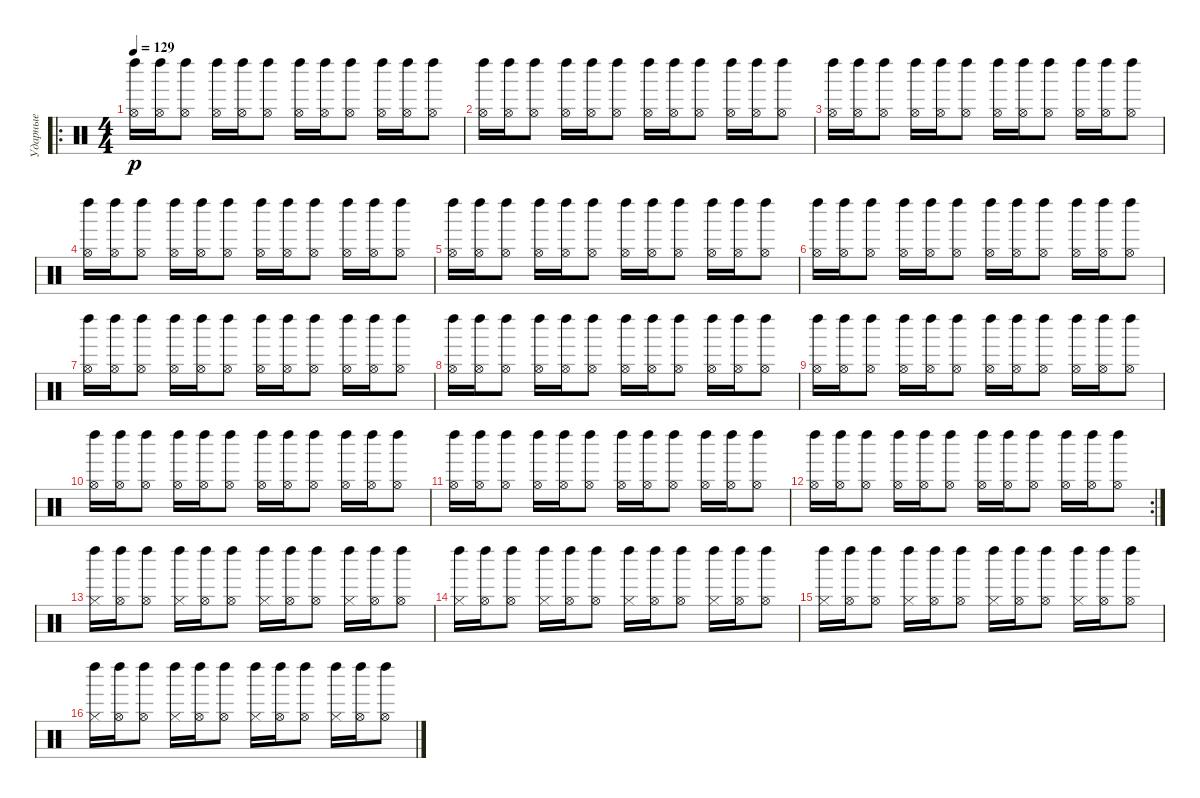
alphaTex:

\track ("Ударные" "Ударные") {instrument percussion}
\staff {score}
\articulation defaults
\ro
\ts (4 4)
\tempo 129
\clef neutral
\ks c
("Left Maraca (hit)" "Hi-Hat (open)").16{dy p} ("Left Maraca (hit)" "Hi-Hat (open)").16 ("Left Maraca (hit)" "Hi-Hat (open)").8 ("Left Maraca (hit)" "Hi-Hat (open)").16 ("Left Maraca (hit)" "Hi-Hat (open)").16 ("Left Maraca (hit)" "Hi-Hat (open)").8 ("Left Maraca (hit)" "Hi-Hat (open)").16 ("Left Maraca (hit)" "Hi-Hat (open)").16 ("Left Maraca (hit)" "Hi-Hat (open)").8 ("Left Maraca (hit)" "Hi-Hat (open)").16 ("Left Maraca (hit)" "Hi-Hat (open)").16 ("Left Maraca (hit)" "Hi-Hat (open)").8 |
("Left Maraca (hit)" "Hi-Hat (open)").16 ("Left Maraca (hit)" "Hi-Hat (open)").16 ("Left Maraca (hit)" "Hi-Hat (open)").8 ("Left Maraca (hit)" "Hi-Hat (open)").16 ("Left Maraca (hit)" "Hi-Hat (open)").16 ("Left Maraca (hit)" "Hi-Hat (open)").8 ("Left Maraca (hit)" "Hi-Hat (open)").16 ("Left Maraca (hit)" "Hi-Hat (open)").16 ("Left Maraca (hit)" "Hi-Hat (open)").8 ("Left Maraca (hit)" "Hi-Hat (open)").16 ("Left Maraca (hit)" "Hi-Hat (open)").16 ("Left Maraca (hit)" "Hi-Hat (open)").8 |
("Left Maraca (hit)" "Hi-Hat (open)").16 ("Left Maraca (hit)" "Hi-Hat (open)").16 ("Left Maraca (hit)" "Hi-Hat (open)").8 ("Left Maraca (hit)" "Hi-Hat (open)").16 ("Left Maraca (hit)" "Hi-Hat (open)").16 ("Left Maraca (hit)" "Hi-Hat (open)").8 ("Left Maraca (hit)" "Hi-Hat (open)").16 ("Left Maraca (hit)" "Hi-Hat (open)").16 ("Left Maraca (hit)" "Hi-Hat (open)").8 ("Left Maraca (hit)" "Hi-Hat (open)").16 ("Left Maraca (hit)" "Hi-Hat (open)").16 ("Left Maraca (hit)" "Hi-Hat (open)").8 |
("Left Maraca (hit)" "Hi-Hat (open)").16 ("Left Maraca (hit)" "Hi-Hat (open)").16 ("Left Maraca (hit)" "Hi-Hat (open)").8 ("Left Maraca (hit)" "Hi-Hat (open)").16 ("Left Maraca (hit)" "Hi-Hat (open)").16 ("Left Maraca (hit)" "Hi-Hat (open)").8 ("Left Maraca (hit)" "Hi-Hat (open)").16 ("Left Maraca (hit)" "Hi-Hat (open)").16 ("Left Maraca (hit)" "Hi-Hat (open)").8 ("Left Maraca (hit)" "Hi-Hat (open)").16 ("Left Maraca (hit)" "Hi-Hat (open)").16 ("Left Maraca (hit)" "Hi-Hat (open)").8 |
("Left Maraca (hit)" "Hi-Hat (open)").16 ("Left Maraca (hit)" "Hi-Hat (open)").16 ("Left Maraca (hit)" "Hi-Hat (open)").8 ("Left Maraca (hit)" "Hi-Hat (open)").16 ("Left Maraca (hit)" "Hi-Hat (open)").16 ("Left Maraca (hit)" "Hi-Hat (open)").8 ("Left Maraca (hit)" "Hi-Hat (open)").16 ("Left Maraca (hit)" "Hi-Hat (open)").16 ("Left Maraca (hit)" "Hi-Hat (open)").8 ("Left Maraca (hit)" "Hi-Hat (open)").16 ("Left Maraca (hit)" "Hi-Hat (open)").16 ("Left Maraca (hit)" "Hi-Hat (open)").8 |
("Left Maraca (hit)" "Hi-Hat (open)").16 ("Left Maraca (hit)" "Hi-Hat (open)").16 ("Left Maraca (hit)" "Hi-Hat (open)").8 ("Left Maraca (hit)" "Hi-Hat (open)").16 ("Left Maraca (hit)" "Hi-Hat (open)").16 ("Left Maraca (hit)" "Hi-Hat (open)").8 ("Left Maraca (hit)" "Hi-Hat (open)").16 ("Left Maraca (hit)" "Hi-Hat (open)").16 ("Left Maraca (hit)" "Hi-Hat (open)").8 ("Left Maraca (hit)" "Hi-Hat (open)").16 ("Left Maraca (hit)" "Hi-Hat (open)").16 ("Left Maraca (hit)" "Hi-Hat (open)").8 |
("Left Maraca (hit)" "Hi-Hat (open)").16 ("Left Maraca (hit)" "Hi-Hat (open)").16 ("Left Maraca (hit)" "Hi-Hat (open)").8 ("Left Maraca (hit)" "Hi-Hat (open)").16 ("Left Maraca (hit)" "Hi-Hat (open)").16 ("Left Maraca (hit)" "Hi-Hat (open)").8 ("Left Maraca (hit)" "Hi-Hat (open)").16 ("Left Maraca (hit)" "Hi-Hat (open)").16 ("Left Maraca (hit)" "Hi-Hat (open)").8 ("Left Maraca (hit)" "Hi-Hat (open)").16 ("Left Maraca (hit)" "Hi-Hat (open)").16 ("Left Maraca (hit)" "Hi-Hat (open)").8 |
("Left Maraca (hit)" "Hi-Hat (open)").16 ("Left Maraca (hit)" "Hi-Hat (open)").16 ("Left Maraca (hit)" "Hi-Hat (open)").8 ("Left Maraca (hit)" "Hi-Hat (open)").16 ("Left Maraca (hit)" "Hi-Hat (open)").16 ("Left Maraca (hit)" "Hi-Hat (open)").8 ("Left Maraca (hit)" "Hi-Hat (open)").16 ("Left Maraca (hit)" "Hi-Hat (open)").16 ("Left Maraca (hit)" "Hi-Hat (open)").8 ("Left Maraca (hit)" "Hi-Hat (open)").16 ("Left Maraca (hit)" "Hi-Hat (open)").16 ("Left Maraca (hit)" "Hi-Hat (open)").8 |
("Left Maraca (hit)" "Hi-Hat (open)").16 ("Left Maraca (hit)" "Hi-Hat (open)").16 ("Left Maraca (hit)" "Hi-Hat (open)").8 ("Left Maraca (hit)" "Hi-Hat (open)").16 ("Left Maraca (hit)" "Hi-Hat (open)").16 ("Left Maraca (hit)" "Hi-Hat (open)").8 ("Left Maraca (hit)" "Hi-Hat (open)").16 ("Left Maraca (hit)" "Hi-Hat (open)").16 ("Left Maraca (hit)" "Hi-Hat (open)").8 ("Left Maraca (hit)" "Hi-Hat (open)").16 ("Left Maraca (hit)" "Hi-Hat (open)").16 ("Left Maraca (hit)" "Hi-Hat (open)").8 |
("Left Maraca (hit)" "Hi-Hat (open)").16 ("Left Maraca (hit)" "Hi-Hat (open)").16 ("Left Maraca (hit)" "Hi-Hat (open)").8 ("Left Maraca (hit)" "Hi-Hat (open)").16 ("Left Maraca (hit)" "Hi-Hat (open)").16 ("Left Maraca (hit)" "Hi-Hat (open)").8 ("Left Maraca (hit)" "Hi-Hat (open)").16 ("Left Maraca (hit)" "Hi-Hat (open)").16 ("Left Maraca (hit)" "Hi-Hat (open)").8 ("Left Maraca (hit)" "Hi-Hat (open)").16 ("Left Maraca (hit)" "Hi-Hat (open)").16 ("Left Maraca (hit)" "Hi-Hat (open)").8 |
("Left Maraca (hit)" "Hi-Hat (open)").16 ("Left Maraca (hit)" "Hi-Hat (open)").16 ("Left Maraca (hit)" "Hi-Hat (open)").8 ("Left Maraca (hit)" "Hi-Hat (open)").16 ("Left Maraca (hit)" "Hi-Hat (open)").16 ("Left Maraca (hit)" "Hi-Hat (open)").8 ("Left Maraca (hit)" "Hi-Hat (open)").16 ("Left Maraca (hit)" "Hi-Hat (open)").16 ("Left Maraca (hit)" "Hi-Hat (open)").8 ("Left Maraca (hit)" "Hi-Hat (open)").16 ("Left Maraca (hit)" "Hi-Hat (open)").16 ("Left Maraca (hit)" "Hi-Hat (open)").8 |
\rc 2
("Left Maraca (hit)" "Hi-Hat (open)").16 ("Left Maraca (hit)" "Hi-Hat (open)").16 ("Left Maraca (hit)" "Hi-Hat (open)").8 ("Left Maraca (hit)" "Hi-Hat (open)").16 ("Left Maraca (hit)" "Hi-Hat (open)").16 ("Left Maraca (hit)" "Hi-Hat (open)").8 ("Left Maraca (hit)" "Hi-Hat (open)").16 ("Left Maraca (hit)" "Hi-Hat (open)").16 ("Left Maraca (hit)" "Hi-Hat (open)").8 ("Left Maraca (hit)" "Hi-Hat (open)").16 ("Left Maraca (hit)" "Hi-Hat (open)").16 ("Left Maraca (hit)" "Hi-Hat (open)").8 |
("Hi-Hat (closed)" "Left Maraca (hit)").16 ("Left Maraca (hit)" "Hi-Hat (open)").16 ("Left Maraca (hit)" "Hi-Hat (open)").8 ("Hi-Hat (closed)" "Left Maraca (hit)").16 ("Left Maraca (hit)" "Hi-Hat (open)").16 ("Left Maraca (hit)" "Hi-Hat (open)").8 ("Hi-Hat (closed)" "Left Maraca (hit)").16 ("Left Maraca (hit)" "Hi-Hat (open)").16 ("Left Maraca (hit)" "Hi-Hat (open)").8 ("Hi-Hat (closed)" "Left Maraca (hit)").16 ("Left Maraca (hit)" "Hi-Hat (open)").16 ("Left Maraca (hit)" "Hi-Hat (open)").8 |
("Hi-Hat (closed)" "Left Maraca (hit)").16 ("Left Maraca (hit)" "Hi-Hat (open)").16 ("Left Maraca (hit)" "Hi-Hat (open)").8 ("Hi-Hat (closed)" "Left Maraca (hit)").16 ("Left Maraca (hit)" "Hi-Hat (open)").16 ("Left Maraca (hit)" "Hi-Hat (open)").8 ("Hi-Hat (closed)" "Left Maraca (hit)").16 ("Left Maraca (hit)" "Hi-Hat (open)").16 ("Left Maraca (hit)" "Hi-Hat (open)").8 ("Hi-Hat (closed)" "Left Maraca (hit)").16 ("Left Maraca (hit)" "Hi-Hat (open)").16 ("Left Maraca (hit)" "Hi-Hat (open)").8 |
("Hi-Hat (closed)" "Left Maraca (hit)").16 ("Left Maraca (hit)" "Hi-Hat (open)").16 ("Left Maraca (hit)" "Hi-Hat (open)").8 ("Hi-Hat (closed)" "Left Maraca (hit)").16 ("Left Maraca (hit)" "Hi-Hat (open)").16 ("Left Maraca (hit)" "Hi-Hat (open)").8 ("Hi-Hat (closed)" "Left Maraca (hit)").16 ("Left Maraca (hit)" "Hi-Hat (open)").16 ("Left Maraca (hit)" "Hi-Hat (open)").8 ("Hi-Hat (closed)" "Left Maraca (hit)").16 ("Left Maraca (hit)" "Hi-Hat (open)").16 ("Left Maraca (hit)" "Hi-Hat (open)").8 |
("Hi-Hat (closed)" "Left Maraca (hit)").16 ("Left Maraca (hit)" "Hi-Hat (open)").16 ("Left Maraca (hit)" "Hi-Hat (open)").8 ("Hi-Hat (closed)" "Left Maraca (hit)").16 ("Left Maraca (hit)" "Hi-Hat (open)").16 ("Left Maraca (hit)" "Hi-Hat (open)").8 ("Hi-Hat (closed)" "Left Maraca (hit)").16 ("Left Maraca (hit)" "Hi-Hat (open)").16 ("Left Maraca (hit)" "Hi-Hat (open)").8 ("Hi-Hat (closed)" "Left Maraca (hit)").16 ("Left Maraca (hit)" "Hi-Hat (open)").16 ("Left Maraca (hit)" "Hi-Hat (open)").8
